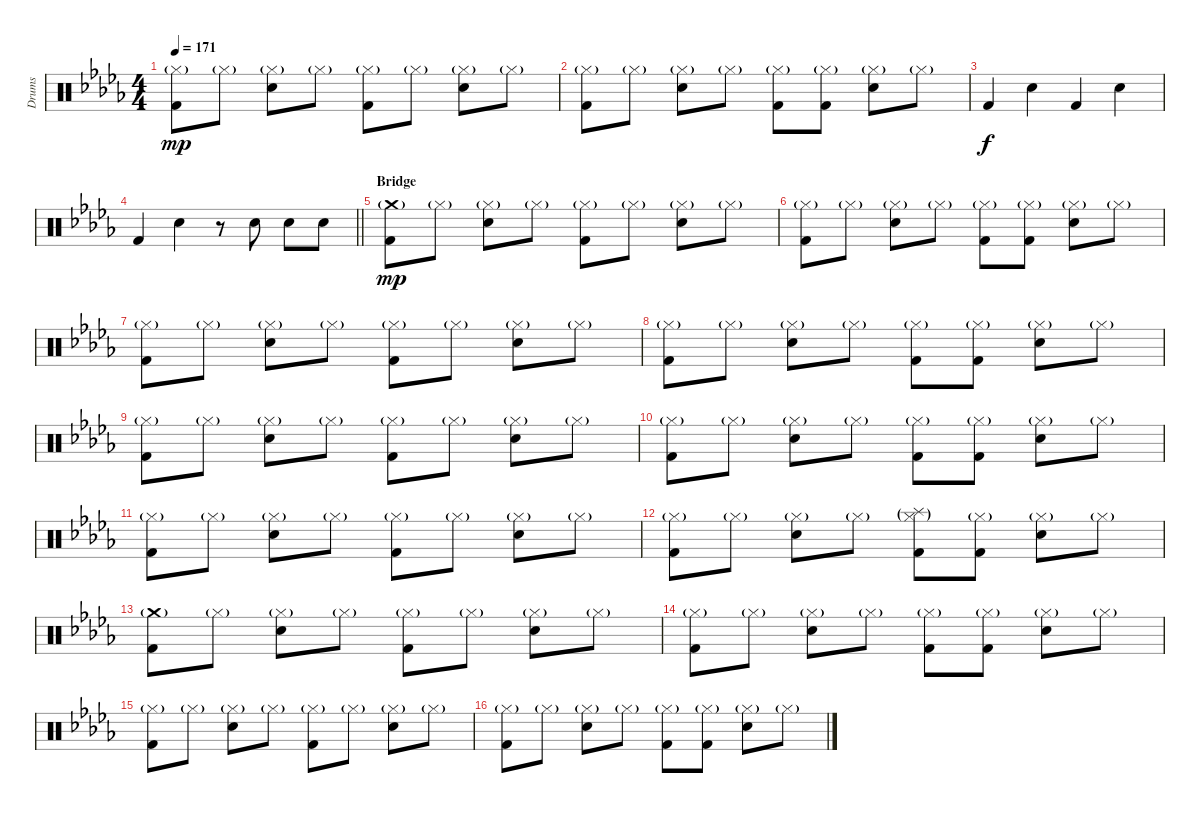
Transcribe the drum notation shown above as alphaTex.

\track ("Drums" "Drums") {instrument percussion}
\staff {score}
\articulation defaults
\ts (4 4)
\tempo 171
\clef neutral
\ks db
("Hi-Hat (closed)"{g} "Kick (hit) 2").8{dy mp} "Hi-Hat (closed)"{g}.8 ("Hi-Hat (closed)"{g} "Snare (hit) 2").8 "Hi-Hat (closed)"{g}.8 ("Hi-Hat (closed)"{g} "Kick (hit) 2").8 "Hi-Hat (closed)"{g}.8 ("Hi-Hat (closed)"{g} "Snare (hit) 2").8 "Hi-Hat (closed)"{g}.8 |
("Hi-Hat (closed)"{g} "Kick (hit) 2").8 "Hi-Hat (closed)"{g}.8 ("Hi-Hat (closed)"{g} "Snare (hit) 2").8 "Hi-Hat (closed)"{g}.8 ("Hi-Hat (closed)"{g} "Kick (hit) 2").8 ("Hi-Hat (closed)"{g} "Kick (hit) 2").8 ("Hi-Hat (closed)"{g} "Snare (hit) 2").8 "Hi-Hat (closed)"{g}.8 |
"Kick (hit) 2".4{dy f} "Snare (hit) 2".4 "Kick (hit) 2".4 "Snare (hit) 2".4 |
\barLineRight lightlight "Kick (hit) 2".4 "Snare (hit) 2".4
r.8 "Snare (hit) 2".8 "Snare (hit) 2".8 "Snare (hit) 2".8 |
\section ("" "Bridge")
("Crash medium (hit)"{g} "Kick (hit) 2").8{dy mp} "Hi-Hat (closed)"{g}.8 ("Hi-Hat (closed)"{g} "Snare (hit) 2").8 "Hi-Hat (closed)"{g}.8 ("Hi-Hat (closed)"{g} "Kick (hit) 2").8 "Hi-Hat (closed)"{g}.8 ("Hi-Hat (closed)"{g} "Snare (hit) 2").8 "Hi-Hat (closed)"{g}.8 |
("Hi-Hat (closed)"{g} "Kick (hit) 2").8 "Hi-Hat (closed)"{g}.8 ("Hi-Hat (closed)"{g} "Snare (hit) 2").8 "Hi-Hat (closed)"{g}.8 ("Hi-Hat (closed)"{g} "Kick (hit) 2").8 ("Hi-Hat (closed)"{g} "Kick (hit) 2").8 ("Hi-Hat (closed)"{g} "Snare (hit) 2").8 "Hi-Hat (closed)"{g}.8 |
("Hi-Hat (closed)"{g} "Kick (hit) 2").8 "Hi-Hat (closed)"{g}.8 ("Hi-Hat (closed)"{g} "Snare (hit) 2").8 "Hi-Hat (closed)"{g}.8 ("Hi-Hat (closed)"{g} "Kick (hit) 2").8 "Hi-Hat (closed)"{g}.8 ("Hi-Hat (closed)"{g} "Snare (hit) 2").8 "Hi-Hat (closed)"{g}.8 |
("Hi-Hat (closed)"{g} "Kick (hit) 2").8 "Hi-Hat (closed)"{g}.8 ("Hi-Hat (closed)"{g} "Snare (hit) 2").8 "Hi-Hat (closed)"{g}.8 ("Hi-Hat (closed)"{g} "Kick (hit) 2").8 ("Hi-Hat (closed)"{g} "Kick (hit) 2").8 ("Hi-Hat (closed)"{g} "Snare (hit) 2").8 "Hi-Hat (closed)"{g}.8 |
("Hi-Hat (closed)"{g} "Kick (hit) 2").8 "Hi-Hat (closed)"{g}.8 ("Hi-Hat (closed)"{g} "Snare (hit) 2").8 "Hi-Hat (closed)"{g}.8 ("Hi-Hat (closed)"{g} "Kick (hit) 2").8 "Hi-Hat (closed)"{g}.8 ("Hi-Hat (closed)"{g} "Snare (hit) 2").8 "Hi-Hat (closed)"{g}.8 |
("Hi-Hat (closed)"{g} "Kick (hit) 2").8 "Hi-Hat (closed)"{g}.8 ("Hi-Hat (closed)"{g} "Snare (hit) 2").8 "Hi-Hat (closed)"{g}.8 ("Hi-Hat (closed)"{g} "Kick (hit) 2").8 ("Hi-Hat (closed)"{g} "Kick (hit) 2").8 ("Hi-Hat (closed)"{g} "Snare (hit) 2").8 "Hi-Hat (closed)"{g}.8 |
("Hi-Hat (closed)"{g} "Kick (hit) 2").8 "Hi-Hat (closed)"{g}.8 ("Hi-Hat (closed)"{g} "Snare (hit) 2").8 "Hi-Hat (closed)"{g}.8 ("Hi-Hat (closed)"{g} "Kick (hit) 2").8 "Hi-Hat (closed)"{g}.8 ("Hi-Hat (closed)"{g} "Snare (hit) 2").8 "Hi-Hat (closed)"{g}.8 |
("Hi-Hat (closed)"{g} "Kick (hit) 2").8 "Hi-Hat (closed)"{g}.8 ("Hi-Hat (closed)"{g} "Snare (hit) 2").8 "Hi-Hat (closed)"{g}.8 ("Splash (hit)"{g} "Hi-Hat (closed)"{g} "Kick (hit) 2").8 ("Hi-Hat (closed)"{g} "Kick (hit) 2").8 ("Hi-Hat (closed)"{g} "Snare (hit) 2").8 "Hi-Hat (closed)"{g}.8 |
("Crash medium (hit)"{g} "Kick (hit) 2").8 "Hi-Hat (closed)"{g}.8 ("Hi-Hat (closed)"{g} "Snare (hit) 2").8 "Hi-Hat (closed)"{g}.8 ("Hi-Hat (closed)"{g} "Kick (hit) 2").8 "Hi-Hat (closed)"{g}.8 ("Hi-Hat (closed)"{g} "Snare (hit) 2").8 "Hi-Hat (closed)"{g}.8 |
("Hi-Hat (closed)"{g} "Kick (hit) 2").8 "Hi-Hat (closed)"{g}.8 ("Hi-Hat (closed)"{g} "Snare (hit) 2").8 "Hi-Hat (closed)"{g}.8 ("Hi-Hat (closed)"{g} "Kick (hit) 2").8 ("Hi-Hat (closed)"{g} "Kick (hit) 2").8 ("Hi-Hat (closed)"{g} "Snare (hit) 2").8 "Hi-Hat (closed)"{g}.8 |
("Hi-Hat (closed)"{g} "Kick (hit) 2").8 "Hi-Hat (closed)"{g}.8 ("Hi-Hat (closed)"{g} "Snare (hit) 2").8 "Hi-Hat (closed)"{g}.8 ("Hi-Hat (closed)"{g} "Kick (hit) 2").8 "Hi-Hat (closed)"{g}.8 ("Hi-Hat (closed)"{g} "Snare (hit) 2").8 "Hi-Hat (closed)"{g}.8 |
("Hi-Hat (closed)"{g} "Kick (hit) 2").8 "Hi-Hat (closed)"{g}.8 ("Hi-Hat (closed)"{g} "Snare (hit) 2").8 "Hi-Hat (closed)"{g}.8 ("Hi-Hat (closed)"{g} "Kick (hit) 2").8 ("Hi-Hat (closed)"{g} "Kick (hit) 2").8 ("Hi-Hat (closed)"{g} "Snare (hit) 2").8 "Hi-Hat (closed)"{g}.8
